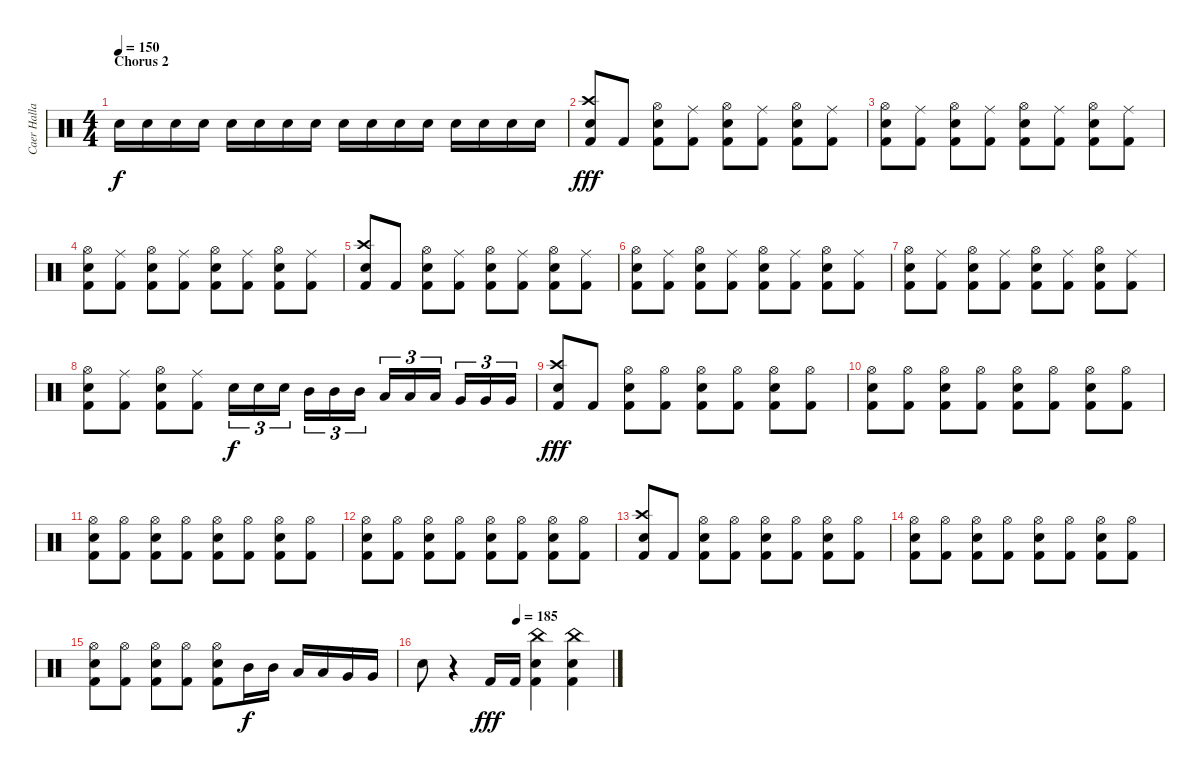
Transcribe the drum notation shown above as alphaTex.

\track ("Caer Hallam Generis" "Caer Halla") {instrument percussion}
\staff {score}
\articulation defaults
\ts (4 4)
\section ("" "Chorus 2")
\tempo 150
\clef neutral
\ks c "Snare (hit) 2".16{dy f} "Snare (hit) 2".16 "Snare (hit) 2".16 "Snare (hit) 2".16 "Snare (hit) 2".16 "Snare (hit) 2".16 "Snare (hit) 2".16 "Snare (hit) 2".16 "Snare (hit) 2".16 "Snare (hit) 2".16 "Snare (hit) 2".16 "Snare (hit) 2".16 "Snare (hit) 2".16 "Snare (hit) 2".16 "Snare (hit) 2".16 "Snare (hit) 2".16
|
("Crash high (hit)" "Snare (hit) 2" "Kick (hit) 2").8{dy fff} "Kick (hit) 2".8 ("Hi-Hat (open)" "Snare (hit) 2" "Kick (hit) 2").8 ("Ride (middle)" "Kick (hit) 2").8 ("Hi-Hat (open)" "Snare (hit) 2" "Kick (hit) 2").8 ("Ride (middle)" "Kick (hit) 2").8 ("Hi-Hat (open)" "Snare (hit) 2" "Kick (hit) 2").8 ("Ride (middle)" "Kick (hit) 2").8 |
("Hi-Hat (open)" "Snare (hit) 2" "Kick (hit) 2").8 ("Ride (middle)" "Kick (hit) 2").8 ("Hi-Hat (open)" "Snare (hit) 2" "Kick (hit) 2").8 ("Ride (middle)" "Kick (hit) 2").8 ("Hi-Hat (open)" "Snare (hit) 2" "Kick (hit) 2").8 ("Ride (middle)" "Kick (hit) 2").8 ("Hi-Hat (open)" "Snare (hit) 2" "Kick (hit) 2").8 ("Ride (middle)" "Kick (hit) 2").8 |
("Hi-Hat (open)" "Snare (hit) 2" "Kick (hit) 2").8 ("Ride (middle)" "Kick (hit) 2").8 ("Hi-Hat (open)" "Snare (hit) 2" "Kick (hit) 2").8 ("Ride (middle)" "Kick (hit) 2").8 ("Hi-Hat (open)" "Snare (hit) 2" "Kick (hit) 2").8 ("Ride (middle)" "Kick (hit) 2").8 ("Hi-Hat (open)" "Snare (hit) 2" "Kick (hit) 2").8 ("Ride (middle)" "Kick (hit) 2").8 |
("Crash high (hit)" "Snare (hit) 2" "Kick (hit) 2").8 "Kick (hit) 2".8 ("Hi-Hat (open)" "Snare (hit) 2" "Kick (hit) 2").8 ("Ride (middle)" "Kick (hit) 2").8 ("Hi-Hat (open)" "Snare (hit) 2" "Kick (hit) 2").8 ("Ride (middle)" "Kick (hit) 2").8 ("Hi-Hat (open)" "Snare (hit) 2" "Kick (hit) 2").8 ("Ride (middle)" "Kick (hit) 2").8 |
("Hi-Hat (open)" "Snare (hit) 2" "Kick (hit) 2").8 ("Ride (middle)" "Kick (hit) 2").8 ("Hi-Hat (open)" "Snare (hit) 2" "Kick (hit) 2").8 ("Ride (middle)" "Kick (hit) 2").8 ("Hi-Hat (open)" "Snare (hit) 2" "Kick (hit) 2").8 ("Ride (middle)" "Kick (hit) 2").8 ("Hi-Hat (open)" "Snare (hit) 2" "Kick (hit) 2").8 ("Ride (middle)" "Kick (hit) 2").8 |
("Hi-Hat (open)" "Snare (hit) 2" "Kick (hit) 2").8 ("Ride (middle)" "Kick (hit) 2").8 ("Hi-Hat (open)" "Snare (hit) 2" "Kick (hit) 2").8 ("Ride (middle)" "Kick (hit) 2").8 ("Hi-Hat (open)" "Snare (hit) 2" "Kick (hit) 2").8 ("Ride (middle)" "Kick (hit) 2").8 ("Hi-Hat (open)" "Snare (hit) 2" "Kick (hit) 2").8 ("Ride (middle)" "Kick (hit) 2").8 |
("Hi-Hat (open)" "Snare (hit) 2" "Kick (hit) 2").8 ("Ride (middle)" "Kick (hit) 2").8 ("Hi-Hat (open)" "Snare (hit) 2" "Kick (hit) 2").8 ("Ride (middle)" "Kick (hit) 2").8 "Snare (hit) 2".16{tu (3 2) dy f} "Snare (hit) 2".16{tu (3 2)} "Snare (hit) 2".16{tu (3 2)} "Mid Tom (hit)".16{tu (3 2)} "Mid Tom (hit)".16{tu (3 2)} "Mid Tom (hit)".16{tu (3 2)} "Low Tom (hit)".16{tu (3 2)} "Low Tom (hit)".16{tu (3 2)} "Low Tom (hit)".16{tu (3 2)} "Very Low Tom (hit)".16{tu (3 2)} "Very Low Tom (hit)".16{tu (3 2)} "Very Low Tom (hit)".16{tu (3 2)} |
("Crash high (hit)" "Snare (hit) 2" "Kick (hit) 2").8{dy fff} "Kick (hit) 2".8 ("Hi-Hat (open)" "Snare (hit) 2" "Kick (hit) 2").8 ("Hi-Hat (open)" "Kick (hit) 2").8 ("Hi-Hat (open)" "Snare (hit) 2" "Kick (hit) 2").8 ("Hi-Hat (open)" "Kick (hit) 2").8 ("Hi-Hat (open)" "Snare (hit) 2" "Kick (hit) 2").8 ("Hi-Hat (open)" "Kick (hit) 2").8 |
("Hi-Hat (open)" "Snare (hit) 2" "Kick (hit) 2").8 ("Hi-Hat (open)" "Kick (hit) 2").8 ("Hi-Hat (open)" "Snare (hit) 2" "Kick (hit) 2").8 ("Hi-Hat (open)" "Kick (hit) 2").8 ("Hi-Hat (open)" "Snare (hit) 2" "Kick (hit) 2").8 ("Hi-Hat (open)" "Kick (hit) 2").8 ("Hi-Hat (open)" "Snare (hit) 2" "Kick (hit) 2").8 ("Hi-Hat (open)" "Kick (hit) 2").8 |
("Hi-Hat (open)" "Snare (hit) 2" "Kick (hit) 2").8 ("Hi-Hat (open)" "Kick (hit) 2").8 ("Hi-Hat (open)" "Snare (hit) 2" "Kick (hit) 2").8 ("Hi-Hat (open)" "Kick (hit) 2").8 ("Hi-Hat (open)" "Snare (hit) 2" "Kick (hit) 2").8 ("Hi-Hat (open)" "Kick (hit) 2").8 ("Hi-Hat (open)" "Snare (hit) 2" "Kick (hit) 2").8 ("Hi-Hat (open)" "Kick (hit) 2").8 |
("Hi-Hat (open)" "Snare (hit) 2" "Kick (hit) 2").8 ("Hi-Hat (open)" "Kick (hit) 2").8 ("Hi-Hat (open)" "Snare (hit) 2" "Kick (hit) 2").8 ("Hi-Hat (open)" "Kick (hit) 2").8 ("Hi-Hat (open)" "Snare (hit) 2" "Kick (hit) 2").8 ("Hi-Hat (open)" "Kick (hit) 2").8 ("Hi-Hat (open)" "Snare (hit) 2" "Kick (hit) 2").8 ("Hi-Hat (open)" "Kick (hit) 2").8 |
("Crash high (hit)" "Snare (hit) 2" "Kick (hit) 2").8 "Kick (hit) 2".8 ("Hi-Hat (open)" "Snare (hit) 2" "Kick (hit) 2").8 ("Hi-Hat (open)" "Kick (hit) 2").8 ("Hi-Hat (open)" "Snare (hit) 2" "Kick (hit) 2").8 ("Hi-Hat (open)" "Kick (hit) 2").8 ("Hi-Hat (open)" "Snare (hit) 2" "Kick (hit) 2").8 ("Hi-Hat (open)" "Kick (hit) 2").8 |
("Hi-Hat (open)" "Snare (hit) 2" "Kick (hit) 2").8 ("Hi-Hat (open)" "Kick (hit) 2").8 ("Hi-Hat (open)" "Snare (hit) 2" "Kick (hit) 2").8 ("Hi-Hat (open)" "Kick (hit) 2").8 ("Hi-Hat (open)" "Snare (hit) 2" "Kick (hit) 2").8 ("Hi-Hat (open)" "Kick (hit) 2").8 ("Hi-Hat (open)" "Snare (hit) 2" "Kick (hit) 2").8 ("Hi-Hat (open)" "Kick (hit) 2").8 |
("Hi-Hat (open)" "Snare (hit) 2" "Kick (hit) 2").8 ("Hi-Hat (open)" "Kick (hit) 2").8 ("Hi-Hat (open)" "Snare (hit) 2" "Kick (hit) 2").8 ("Hi-Hat (open)" "Kick (hit) 2").8 ("Hi-Hat (open)" "Snare (hit) 2" "Kick (hit) 2").8 "Mid Tom (hit)".16{dy f} "Mid Tom (hit)".16 "Low Tom (hit)".16 "Low Tom (hit)".16 "Very Low Tom (hit)".16 "Very Low Tom (hit)".16 |
\tempo (185 0.5)
"Snare (hit) 2".8 r.4 "Kick (hit) 2".16{dy fff} "Kick (hit) 2".16 ("China (hit)" "Snare (hit) 2" "Kick (hit) 2").4 ("China (hit)" "Snare (hit) 2" "Kick (hit) 2").4
